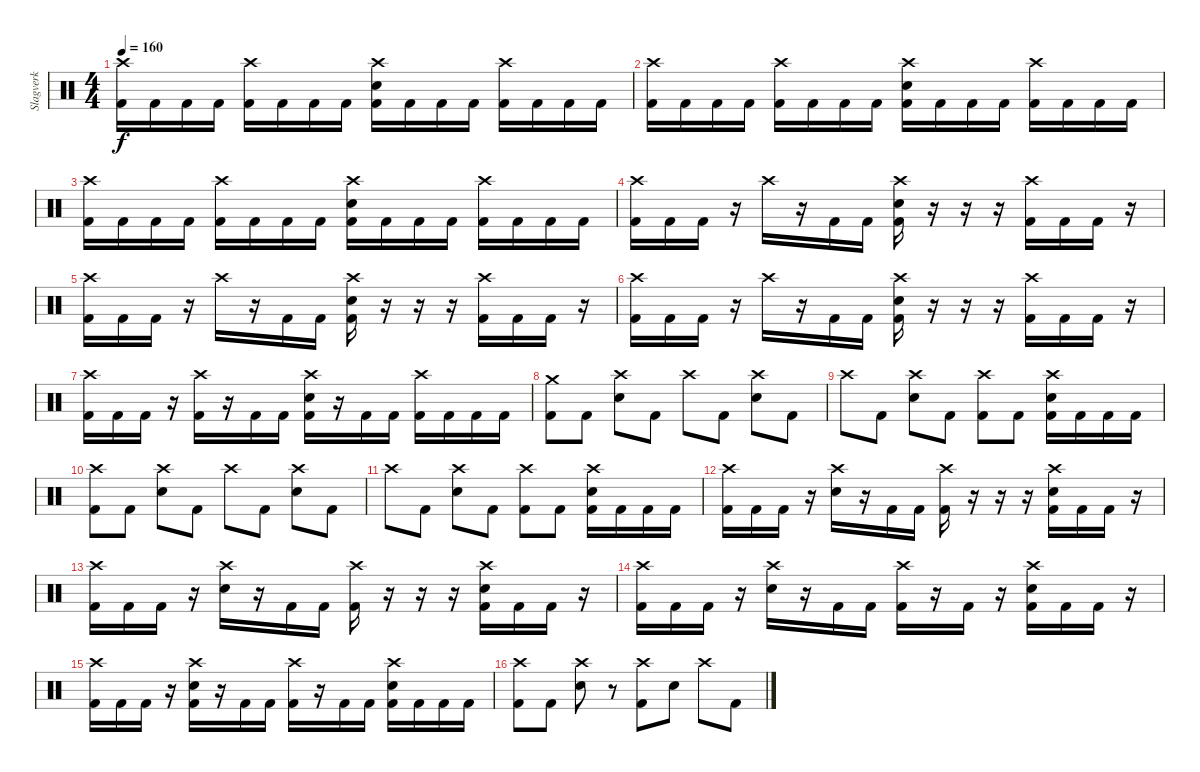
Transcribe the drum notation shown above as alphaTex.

\track ("Slagverk" "Slagverk") {instrument percussion}
\staff {score}
\articulation defaults
\ts (4 4)
\tempo 160
\clef neutral
\ks c
("Crash high (hit)" "Kick (hit) 2").16{dy f} "Kick (hit) 2".16 "Kick (hit) 2".16 "Kick (hit) 2".16 ("Crash high (hit)" "Kick (hit) 2").16 "Kick (hit) 2".16 "Kick (hit) 2".16 "Kick (hit) 2".16 ("Crash high (hit)" "Snare (hit) 2" "Kick (hit) 2").16 "Kick (hit) 2".16 "Kick (hit) 2".16 "Kick (hit) 2".16 ("Crash high (hit)" "Kick (hit) 2").16 "Kick (hit) 2".16 "Kick (hit) 2".16 "Kick (hit) 2".16 |
("Crash high (hit)" "Kick (hit) 2").16 "Kick (hit) 2".16 "Kick (hit) 2".16 "Kick (hit) 2".16 ("Crash high (hit)" "Kick (hit) 2").16 "Kick (hit) 2".16 "Kick (hit) 2".16 "Kick (hit) 2".16 ("Crash high (hit)" "Snare (hit) 2" "Kick (hit) 2").16 "Kick (hit) 2".16 "Kick (hit) 2".16 "Kick (hit) 2".16 ("Crash high (hit)" "Kick (hit) 2").16 "Kick (hit) 2".16 "Kick (hit) 2".16 "Kick (hit) 2".16 |
("Crash high (hit)" "Kick (hit) 2").16 "Kick (hit) 2".16 "Kick (hit) 2".16 "Kick (hit) 2".16 ("Crash high (hit)" "Kick (hit) 2").16 "Kick (hit) 2".16 "Kick (hit) 2".16 "Kick (hit) 2".16 ("Crash high (hit)" "Snare (hit) 2" "Kick (hit) 2").16 "Kick (hit) 2".16 "Kick (hit) 2".16 "Kick (hit) 2".16 ("Crash high (hit)" "Kick (hit) 2").16 "Kick (hit) 2".16 "Kick (hit) 2".16 "Kick (hit) 2".16 |
("Crash high (hit)" "Kick (hit) 2").16 "Kick (hit) 2".16 "Kick (hit) 2".16 r.16 "Crash high (hit)".16 r.16 "Kick (hit) 2".16 "Kick (hit) 2".16 ("Crash high (hit)" "Snare (hit) 2" "Kick (hit) 2").16 r.16 r.16 r.16 ("Crash high (hit)" "Kick (hit) 2").16 "Kick (hit) 2".16 "Kick (hit) 2".16 r.16 |
("Crash high (hit)" "Kick (hit) 2").16 "Kick (hit) 2".16 "Kick (hit) 2".16 r.16 "Crash high (hit)".16 r.16 "Kick (hit) 2".16 "Kick (hit) 2".16 ("Crash high (hit)" "Snare (hit) 2" "Kick (hit) 2").16 r.16 r.16 r.16 ("Crash high (hit)" "Kick (hit) 2").16 "Kick (hit) 2".16 "Kick (hit) 2".16 r.16 |
("Crash high (hit)" "Kick (hit) 2").16 "Kick (hit) 2".16 "Kick (hit) 2".16 r.16 "Crash high (hit)".16 r.16 "Kick (hit) 2".16 "Kick (hit) 2".16 ("Crash high (hit)" "Snare (hit) 2" "Kick (hit) 2").16 r.16 r.16 r.16 ("Crash high (hit)" "Kick (hit) 2").16 "Kick (hit) 2".16 "Kick (hit) 2".16 r.16 |
("Crash high (hit)" "Kick (hit) 2").16 "Kick (hit) 2".16 "Kick (hit) 2".16 r.16 ("Crash high (hit)" "Kick (hit) 2").16 r.16 "Kick (hit) 2".16 "Kick (hit) 2".16 ("Crash high (hit)" "Snare (hit) 2" "Kick (hit) 2").16 r.16 "Kick (hit) 2".16 "Kick (hit) 2".16 ("Crash high (hit)" "Kick (hit) 2").16 "Kick (hit) 2".16 "Kick (hit) 2".16 "Kick (hit) 2".16 |
("Crash medium (hit)" "Kick (hit) 2").8 "Kick (hit) 2".8 ("Crash high (hit)" "Snare (hit) 2").8 "Kick (hit) 2".8 "Crash high (hit)".8 "Kick (hit) 2".8 ("Crash high (hit)" "Snare (hit) 2").8 "Kick (hit) 2".8 |
"Crash high (hit)".8 "Kick (hit) 2".8 ("Crash high (hit)" "Snare (hit) 2").8 "Kick (hit) 2".8 ("Crash high (hit)" "Kick (hit) 2").8 "Kick (hit) 2".8 ("Crash high (hit)" "Snare (hit) 2" "Kick (hit) 2").16 "Kick (hit) 2".16 "Kick (hit) 2".16 "Kick (hit) 2".16 |
("Crash high (hit)" "Kick (hit) 2").8 "Kick (hit) 2".8 ("Crash high (hit)" "Snare (hit) 2").8 "Kick (hit) 2".8 "Crash high (hit)".8 "Kick (hit) 2".8 ("Crash high (hit)" "Snare (hit) 2").8 "Kick (hit) 2".8 |
"Crash high (hit)".8 "Kick (hit) 2".8 ("Crash high (hit)" "Snare (hit) 2").8 "Kick (hit) 2".8 ("Crash high (hit)" "Kick (hit) 2").8 "Kick (hit) 2".8 ("Crash high (hit)" "Snare (hit) 2" "Kick (hit) 2").16 "Kick (hit) 2".16 "Kick (hit) 2".16 "Kick (hit) 2".16 |
("Crash high (hit)" "Kick (hit) 2").16 "Kick (hit) 2".16 "Kick (hit) 2".16 r.16 ("Crash high (hit)" "Snare (hit) 2").16 r.16 "Kick (hit) 2".16 "Kick (hit) 2".16 ("Crash high (hit)" "Kick (hit) 2").16 r.16 r.16 r.16 ("Crash high (hit)" "Snare (hit) 2" "Kick (hit) 2").16 "Kick (hit) 2".16 "Kick (hit) 2".16 r.16 |
("Crash high (hit)" "Kick (hit) 2").16 "Kick (hit) 2".16 "Kick (hit) 2".16 r.16 ("Crash high (hit)" "Snare (hit) 2").16 r.16 "Kick (hit) 2".16 "Kick (hit) 2".16 ("Crash high (hit)" "Kick (hit) 2").16 r.16 r.16 r.16 ("Crash high (hit)" "Snare (hit) 2" "Kick (hit) 2").16 "Kick (hit) 2".16 "Kick (hit) 2".16 r.16 |
("Crash high (hit)" "Kick (hit) 2").16 "Kick (hit) 2".16 "Kick (hit) 2".16 r.16 ("Crash high (hit)" "Snare (hit) 2").16 r.16 "Kick (hit) 2".16 "Kick (hit) 2".16 ("Crash high (hit)" "Kick (hit) 2").16 r.16 "Kick (hit) 2".16 r.16 ("Crash high (hit)" "Snare (hit) 2" "Kick (hit) 2").16 "Kick (hit) 2".16 "Kick (hit) 2".16 r.16 |
("Crash high (hit)" "Kick (hit) 2").16 "Kick (hit) 2".16 "Kick (hit) 2".16 r.16 ("Crash high (hit)" "Snare (hit) 2" "Kick (hit) 2").16 r.16 "Kick (hit) 2".16 "Kick (hit) 2".16 ("Crash high (hit)" "Kick (hit) 2").16 r.16 "Kick (hit) 2".16 "Kick (hit) 2".16 ("Crash high (hit)" "Snare (hit) 2" "Kick (hit) 2").16 "Kick (hit) 2".16 "Kick (hit) 2".16 "Kick (hit) 2".16 |
("Crash high (hit)" "Kick (hit) 2").8 "Kick (hit) 2".8 ("Crash high (hit)" "Snare (hit) 2").8 r.8 ("Crash high (hit)" "Kick (hit) 2").8 "Snare (hit) 2".8 "Crash high (hit)".8 "Kick (hit) 2".8
